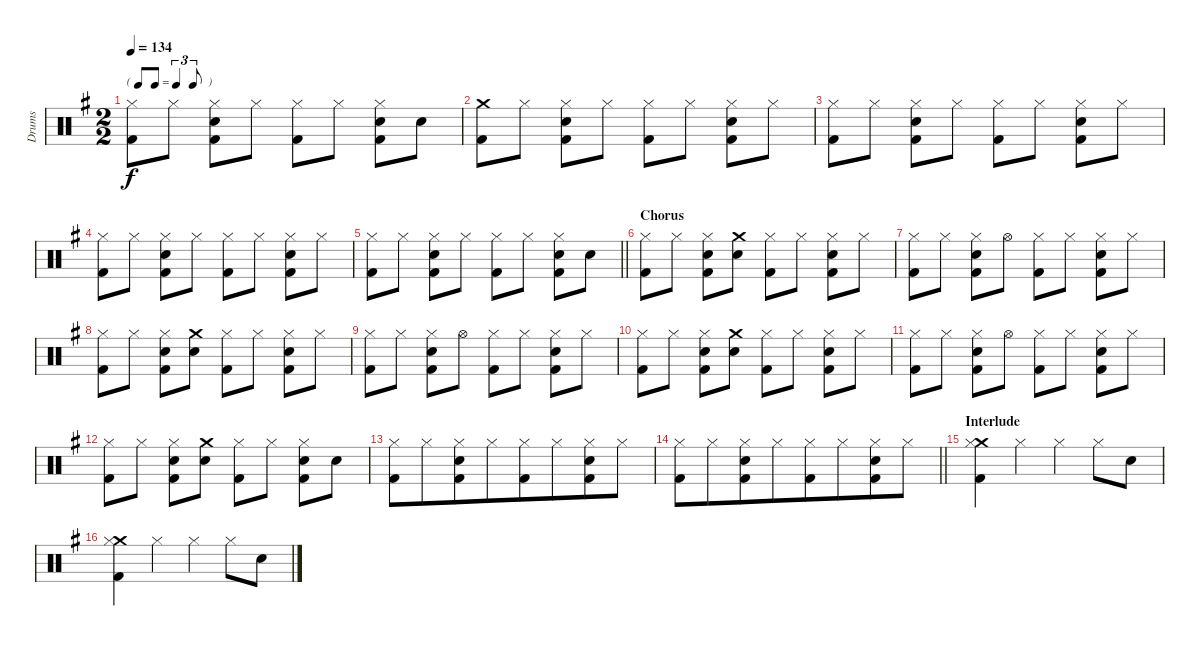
\track ("Drums" "Drums") {instrument percussion}
\staff {score}
\articulation defaults
\ts (2 2)
\tf triplet8th
\tempo 134
\clef neutral
\ks g
("Hi-Hat (closed)" "Kick (hit) 2").8{dy f} "Hi-Hat (closed)".8 ("Hi-Hat (closed)" "Snare (hit) 2" "Kick (hit) 2").8 "Hi-Hat (closed)".8 ("Hi-Hat (closed)" "Kick (hit) 2").8 "Hi-Hat (closed)".8 ("Hi-Hat (closed)" "Snare (hit) 2" "Kick (hit) 2").8 "Snare (hit) 2".8 |
("Crash medium (hit)" "Kick (hit) 2").8 "Hi-Hat (closed)".8 ("Hi-Hat (closed)" "Snare (hit) 2" "Kick (hit) 2").8 "Hi-Hat (closed)".8 ("Hi-Hat (closed)" "Kick (hit) 2").8 "Hi-Hat (closed)".8 ("Hi-Hat (closed)" "Snare (hit) 2" "Kick (hit) 2").8 "Hi-Hat (closed)".8 |
("Hi-Hat (closed)" "Kick (hit) 2").8 "Hi-Hat (closed)".8 ("Hi-Hat (closed)" "Snare (hit) 2" "Kick (hit) 2").8 "Hi-Hat (closed)".8 ("Hi-Hat (closed)" "Kick (hit) 2").8 "Hi-Hat (closed)".8 ("Hi-Hat (closed)" "Snare (hit) 2" "Kick (hit) 2").8 "Hi-Hat (closed)".8 |
("Hi-Hat (closed)" "Kick (hit) 2").8 "Hi-Hat (closed)".8 ("Hi-Hat (closed)" "Snare (hit) 2" "Kick (hit) 2").8 "Hi-Hat (closed)".8 ("Hi-Hat (closed)" "Kick (hit) 2").8 "Hi-Hat (closed)".8 ("Hi-Hat (closed)" "Snare (hit) 2" "Kick (hit) 2").8 "Hi-Hat (closed)".8 |
\barLineRight lightlight
("Hi-Hat (closed)" "Kick (hit) 2").8 "Hi-Hat (closed)".8 ("Hi-Hat (closed)" "Snare (hit) 2" "Kick (hit) 2").8 "Hi-Hat (closed)".8 ("Hi-Hat (closed)" "Kick (hit) 2").8 "Hi-Hat (closed)".8 ("Hi-Hat (closed)" "Snare (hit) 2" "Kick (hit) 2").8 "Snare (hit) 2".8 |
\section ("" "Chorus")
("Hi-Hat (closed)" "Kick (hit) 2").8 "Hi-Hat (closed)".8 ("Hi-Hat (closed)" "Snare (hit) 2" "Kick (hit) 2").8 ("Crash medium (hit)" "Snare (hit) 2").8 ("Hi-Hat (closed)" "Kick (hit) 2").8 "Hi-Hat (closed)".8 ("Hi-Hat (closed)" "Snare (hit) 2" "Kick (hit) 2").8 "Hi-Hat (closed)".8 |
("Hi-Hat (closed)" "Kick (hit) 2").8 "Hi-Hat (closed)".8 ("Hi-Hat (closed)" "Snare (hit) 2" "Kick (hit) 2").8 "Hi-Hat (open)".8 ("Hi-Hat (closed)" "Kick (hit) 2").8 "Hi-Hat (closed)".8 ("Hi-Hat (closed)" "Snare (hit) 2" "Kick (hit) 2").8 "Hi-Hat (closed)".8 |
("Hi-Hat (closed)" "Kick (hit) 2").8 "Hi-Hat (closed)".8 ("Hi-Hat (closed)" "Snare (hit) 2" "Kick (hit) 2").8 ("Crash medium (hit)" "Snare (hit) 2").8 ("Hi-Hat (closed)" "Kick (hit) 2").8 "Hi-Hat (closed)".8 ("Hi-Hat (closed)" "Snare (hit) 2" "Kick (hit) 2").8 "Hi-Hat (closed)".8 |
("Hi-Hat (closed)" "Kick (hit) 2").8 "Hi-Hat (closed)".8 ("Hi-Hat (closed)" "Snare (hit) 2" "Kick (hit) 2").8 "Hi-Hat (open)".8 ("Hi-Hat (closed)" "Kick (hit) 2").8 "Hi-Hat (closed)".8 ("Hi-Hat (closed)" "Snare (hit) 2" "Kick (hit) 2").8 "Hi-Hat (closed)".8 |
("Hi-Hat (closed)" "Kick (hit) 2").8 "Hi-Hat (closed)".8 ("Hi-Hat (closed)" "Snare (hit) 2" "Kick (hit) 2").8 ("Crash medium (hit)" "Snare (hit) 2").8 ("Hi-Hat (closed)" "Kick (hit) 2").8 "Hi-Hat (closed)".8 ("Hi-Hat (closed)" "Snare (hit) 2" "Kick (hit) 2").8 "Hi-Hat (closed)".8 |
("Hi-Hat (closed)" "Kick (hit) 2").8 "Hi-Hat (closed)".8 ("Hi-Hat (closed)" "Snare (hit) 2" "Kick (hit) 2").8 "Hi-Hat (open)".8 ("Hi-Hat (closed)" "Kick (hit) 2").8 "Hi-Hat (closed)".8 ("Hi-Hat (closed)" "Snare (hit) 2" "Kick (hit) 2").8 "Hi-Hat (closed)".8 |
("Hi-Hat (closed)" "Kick (hit) 2").8 "Hi-Hat (closed)".8 ("Hi-Hat (closed)" "Snare (hit) 2" "Kick (hit) 2").8 ("Crash medium (hit)" "Snare (hit) 2").8 ("Hi-Hat (closed)" "Kick (hit) 2").8 "Hi-Hat (closed)".8 ("Hi-Hat (closed)" "Snare (hit) 2" "Kick (hit) 2").8 "Snare (hit) 2".8 |
("Hi-Hat (closed)" "Kick (hit) 2").8{beam merge} "Hi-Hat (closed)".8{beam merge} ("Hi-Hat (closed)" "Snare (hit) 2" "Kick (hit) 2").8{beam merge} "Hi-Hat (closed)".8{beam merge} ("Hi-Hat (closed)" "Kick (hit) 2").8{beam merge} "Hi-Hat (closed)".8{beam merge} ("Hi-Hat (closed)" "Snare (hit) 2" "Kick (hit) 2").8{beam merge} "Hi-Hat (closed)".8 |
\barLineRight lightlight
("Hi-Hat (closed)" "Kick (hit) 2").8{beam merge} "Hi-Hat (closed)".8{beam merge} ("Hi-Hat (closed)" "Snare (hit) 2" "Kick (hit) 2").8{beam merge} "Hi-Hat (closed)".8{beam merge} ("Hi-Hat (closed)" "Kick (hit) 2").8{beam merge} "Hi-Hat (closed)".8{beam merge} ("Hi-Hat (closed)" "Snare (hit) 2" "Kick (hit) 2").8{beam merge} "Hi-Hat (closed)".8 |
\section ("" "Interlude")
("Crash medium (hit)" "Hi-Hat (closed)" "Kick (hit) 2").4 "Hi-Hat (closed)".4 "Hi-Hat (closed)".4 "Hi-Hat (closed)".8 "Snare (hit) 2".8 |
("Crash medium (hit)" "Hi-Hat (closed)" "Kick (hit) 2").4 "Hi-Hat (closed)".4 "Hi-Hat (closed)".4 "Hi-Hat (closed)".8 "Snare (hit) 2".8
